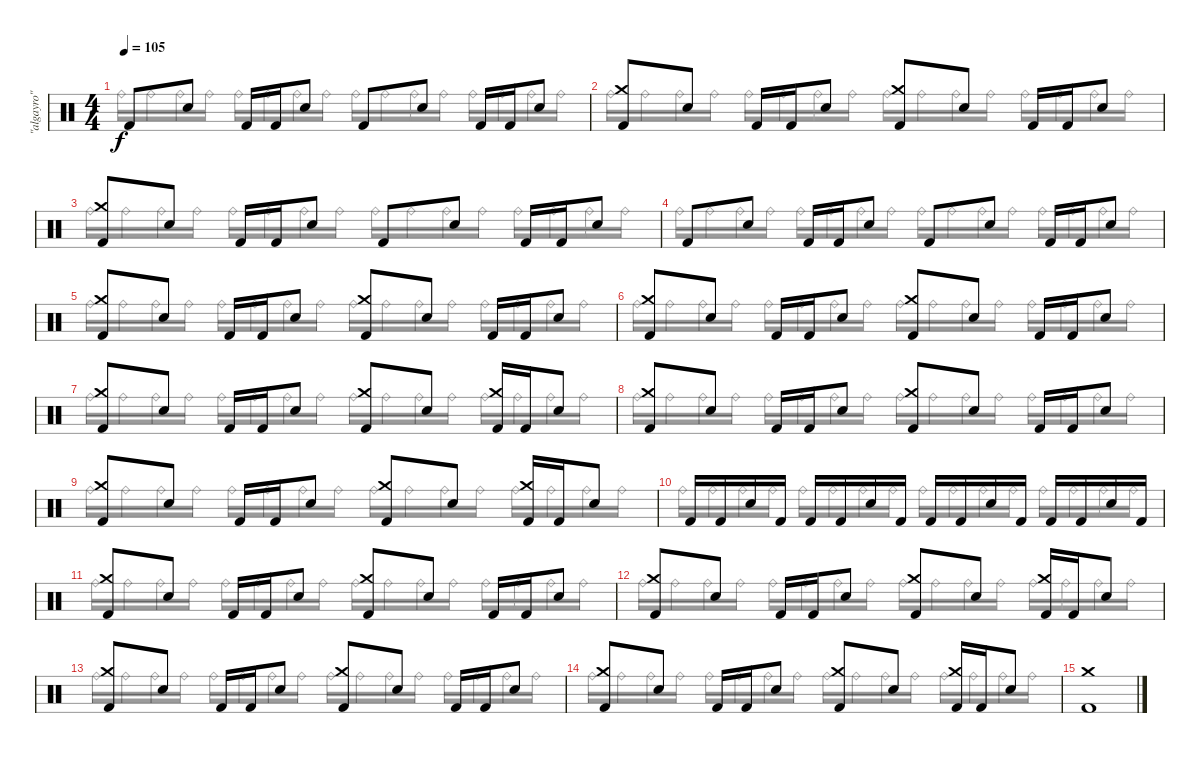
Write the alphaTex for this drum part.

\track ("\"algayro\"" "\"algayro\"") {instrument percussion}
\staff {score}
\articulation defaults
\voice
\ts (4 4)
\tempo 105
\clef neutral
\ks c "Kick (hit) 2".8{dy f} "Electric Snare (hit)".8 "Kick (hit) 2".16 "Kick (hit) 2".16 "Electric Snare (hit)".8 "Kick (hit) 2".8 "Electric Snare (hit)".8 "Kick (hit) 2".16 "Kick (hit) 2".16 "Electric Snare (hit)".8
|
("Crash medium (hit)" "Kick (hit) 2").8 "Electric Snare (hit)".8 "Kick (hit) 2".16 "Kick (hit) 2".16 "Electric Snare (hit)".8 ("Crash medium (hit)" "Kick (hit) 2").8 "Electric Snare (hit)".8 "Kick (hit) 2".16 "Kick (hit) 2".16 "Electric Snare (hit)".8 |
("Crash medium (hit)" "Kick (hit) 2").8 "Electric Snare (hit)".8 "Kick (hit) 2".16 "Kick (hit) 2".16 "Electric Snare (hit)".8 "Kick (hit) 2".8 "Electric Snare (hit)".8 "Kick (hit) 2".16 "Kick (hit) 2".16 "Electric Snare (hit)".8 |
"Kick (hit) 2".8 "Electric Snare (hit)".8 "Kick (hit) 2".16 "Kick (hit) 2".16 "Electric Snare (hit)".8 "Kick (hit) 2".8 "Electric Snare (hit)".8 "Kick (hit) 2".16 "Kick (hit) 2".16 "Electric Snare (hit)".8 |
("Crash medium (hit)" "Kick (hit) 2").8 "Electric Snare (hit)".8 "Kick (hit) 2".16 "Kick (hit) 2".16 "Electric Snare (hit)".8 ("Crash medium (hit)" "Kick (hit) 2").8 "Electric Snare (hit)".8 "Kick (hit) 2".16 "Kick (hit) 2".16 "Electric Snare (hit)".8 |
("Crash medium (hit)" "Kick (hit) 2").8 "Electric Snare (hit)".8 "Kick (hit) 2".16 "Kick (hit) 2".16 "Electric Snare (hit)".8 ("Crash medium (hit)" "Kick (hit) 2").8 "Electric Snare (hit)".8 "Kick (hit) 2".16 "Kick (hit) 2".16 "Electric Snare (hit)".8 |
("Crash medium (hit)" "Kick (hit) 2").8 "Electric Snare (hit)".8 "Kick (hit) 2".16 "Kick (hit) 2".16 "Electric Snare (hit)".8 ("Crash medium (hit)" "Kick (hit) 2").8 "Electric Snare (hit)".8 ("Crash medium (hit)" "Kick (hit) 2").16 "Kick (hit) 2".16 "Electric Snare (hit)".8 |
("Crash medium (hit)" "Kick (hit) 2").8 "Electric Snare (hit)".8 "Kick (hit) 2".16 "Kick (hit) 2".16 "Electric Snare (hit)".8 ("Crash medium (hit)" "Kick (hit) 2").8 "Electric Snare (hit)".8 "Kick (hit) 2".16 "Kick (hit) 2".16 "Electric Snare (hit)".8 |
("Crash medium (hit)" "Kick (hit) 2").8 "Electric Snare (hit)".8 "Kick (hit) 2".16 "Kick (hit) 2".16 "Electric Snare (hit)".8 ("Crash medium (hit)" "Kick (hit) 2").8 "Electric Snare (hit)".8 ("Crash medium (hit)" "Kick (hit) 2").16 "Kick (hit) 2".16 "Electric Snare (hit)".8 |
"Kick (hit) 2".16 "Kick (hit) 2".16 "Electric Snare (hit)".16 "Kick (hit) 2".16 "Kick (hit) 2".16 "Kick (hit) 2".16 "Electric Snare (hit)".16 "Kick (hit) 2".16 "Kick (hit) 2".16 "Kick (hit) 2".16 "Electric Snare (hit)".16 "Kick (hit) 2".16 "Kick (hit) 2".16 "Kick (hit) 2".16 "Electric Snare (hit)".16 "Kick (hit) 2".16 |
("Crash medium (hit)" "Kick (hit) 2").8 "Electric Snare (hit)".8 "Kick (hit) 2".16 "Kick (hit) 2".16 "Electric Snare (hit)".8 ("Crash medium (hit)" "Kick (hit) 2").8 "Electric Snare (hit)".8 "Kick (hit) 2".16 "Kick (hit) 2".16 "Electric Snare (hit)".8 |
("Crash medium (hit)" "Kick (hit) 2").8 "Electric Snare (hit)".8 "Kick (hit) 2".16 "Kick (hit) 2".16 "Electric Snare (hit)".8 ("Crash medium (hit)" "Kick (hit) 2").8 "Electric Snare (hit)".8 ("Crash medium (hit)" "Kick (hit) 2").16 "Kick (hit) 2".16 "Electric Snare (hit)".8 |
("Crash medium (hit)" "Kick (hit) 2").8 "Electric Snare (hit)".8 "Kick (hit) 2".16 "Kick (hit) 2".16 "Electric Snare (hit)".8 ("Crash medium (hit)" "Kick (hit) 2").8 "Electric Snare (hit)".8 "Kick (hit) 2".16 "Kick (hit) 2".16 "Electric Snare (hit)".8 |
("Crash medium (hit)" "Kick (hit) 2").8 "Electric Snare (hit)".8 "Kick (hit) 2".16 "Kick (hit) 2".16 "Electric Snare (hit)".8 ("Crash medium (hit)" "Kick (hit) 2").8 "Electric Snare (hit)".8 ("Crash medium (hit)" "Kick (hit) 2").16 "Kick (hit) 2".16 "Electric Snare (hit)".8 |
("Crash medium (hit)" "Kick (hit) 2").1
\voice
\clef neutral
\ottava regular
\simile none
\ks c "Ride (bell)".16{dy f} "Ride (bell)".16 "Ride (bell)".16 "Ride (bell)".16 "Ride (bell)".16 "Ride (bell)".16 "Ride (bell)".16 "Ride (bell)".16 "Ride (bell)".16 "Ride (bell)".16 "Ride (bell)".16 "Ride (bell)".16 "Ride (bell)".16 "Ride (bell)".16 "Ride (bell)".16 "Ride (bell)".16
|
"Ride (bell)".16 "Ride (bell)".16 "Ride (bell)".16 "Ride (bell)".16 "Ride (bell)".16 "Ride (bell)".16 "Ride (bell)".16 "Ride (bell)".16 "Ride (bell)".16 "Ride (bell)".16 "Ride (bell)".16 "Ride (bell)".16 "Ride (bell)".16 "Ride (bell)".16 "Ride (bell)".16 "Ride (bell)".16 |
"Ride (bell)".16 "Ride (bell)".16 "Ride (bell)".16 "Ride (bell)".16 "Ride (bell)".16 "Ride (bell)".16 "Ride (bell)".16 "Ride (bell)".16 "Ride (bell)".16 "Ride (bell)".16 "Ride (bell)".16 "Ride (bell)".16 "Ride (bell)".16 "Ride (bell)".16 "Ride (bell)".16 "Ride (bell)".16 |
"Ride (bell)".16 "Ride (bell)".16 "Ride (bell)".16 "Ride (bell)".16 "Ride (bell)".16 "Ride (bell)".16 "Ride (bell)".16 "Ride (bell)".16 "Ride (bell)".16 "Ride (bell)".16 "Ride (bell)".16 "Ride (bell)".16 "Ride (bell)".16 "Ride (bell)".16 "Ride (bell)".16 "Ride (bell)".16 |
"Ride (bell)".16 "Ride (bell)".16 "Ride (bell)".16 "Ride (bell)".16 "Ride (bell)".16 "Ride (bell)".16 "Ride (bell)".16 "Ride (bell)".16 "Ride (bell)".16 "Ride (bell)".16 "Ride (bell)".16 "Ride (bell)".16 "Ride (bell)".16 "Ride (bell)".16 "Ride (bell)".16 "Ride (bell)".16 |
"Ride (bell)".16 "Ride (bell)".16 "Ride (bell)".16 "Ride (bell)".16 "Ride (bell)".16 "Ride (bell)".16 "Ride (bell)".16 "Ride (bell)".16 "Ride (bell)".16 "Ride (bell)".16 "Ride (bell)".16 "Ride (bell)".16 "Ride (bell)".16 "Ride (bell)".16 "Ride (bell)".16 "Ride (bell)".16 |
"Ride (bell)".16 "Ride (bell)".16 "Ride (bell)".16 "Ride (bell)".16 "Ride (bell)".16 "Ride (bell)".16 "Ride (bell)".16 "Ride (bell)".16 "Ride (bell)".16 "Ride (bell)".16 "Ride (bell)".16 "Ride (bell)".16 "Ride (bell)".16 "Ride (bell)".16 "Ride (bell)".16 "Ride (bell)".16 |
"Ride (bell)".16 "Ride (bell)".16 "Ride (bell)".16 "Ride (bell)".16 "Ride (bell)".16 "Ride (bell)".16 "Ride (bell)".16 "Ride (bell)".16 "Ride (bell)".16 "Ride (bell)".16 "Ride (bell)".16 "Ride (bell)".16 "Ride (bell)".16 "Ride (bell)".16 "Ride (bell)".16 "Ride (bell)".16 |
"Ride (bell)".16 "Ride (bell)".16 "Ride (bell)".16 "Ride (bell)".16 "Ride (bell)".16 "Ride (bell)".16 "Ride (bell)".16 "Ride (bell)".16 "Ride (bell)".16 "Ride (bell)".16 "Ride (bell)".16 "Ride (bell)".16 "Ride (bell)".16 "Ride (bell)".16 "Ride (bell)".16 "Ride (bell)".16 |
"Ride (bell)".16 "Ride (bell)".16 "Ride (bell)".16 "Ride (bell)".16 "Ride (bell)".16 "Ride (bell)".16 "Ride (bell)".16 "Ride (bell)".16 "Ride (bell)".16 "Ride (bell)".16 "Ride (bell)".16 "Ride (bell)".16 "Ride (bell)".16 "Ride (bell)".16 "Ride (bell)".16 "Ride (bell)".16 |
"Ride (bell)".16 "Ride (bell)".16 "Ride (bell)".16 "Ride (bell)".16 "Ride (bell)".16 "Ride (bell)".16 "Ride (bell)".16 "Ride (bell)".16 "Ride (bell)".16 "Ride (bell)".16 "Ride (bell)".16 "Ride (bell)".16 "Ride (bell)".16 "Ride (bell)".16 "Ride (bell)".16 "Ride (bell)".16 |
"Ride (bell)".16 "Ride (bell)".16 "Ride (bell)".16 "Ride (bell)".16 "Ride (bell)".16 "Ride (bell)".16 "Ride (bell)".16 "Ride (bell)".16 "Ride (bell)".16 "Ride (bell)".16 "Ride (bell)".16 "Ride (bell)".16 "Ride (bell)".16 "Ride (bell)".16 "Ride (bell)".16 "Ride (bell)".16 |
"Ride (bell)".16 "Ride (bell)".16 "Ride (bell)".16 "Ride (bell)".16 "Ride (bell)".16 "Ride (bell)".16 "Ride (bell)".16 "Ride (bell)".16 "Ride (bell)".16 "Ride (bell)".16 "Ride (bell)".16 "Ride (bell)".16 "Ride (bell)".16 "Ride (bell)".16 "Ride (bell)".16 "Ride (bell)".16 |
"Ride (bell)".16 "Ride (bell)".16 "Ride (bell)".16 "Ride (bell)".16 "Ride (bell)".16 "Ride (bell)".16 "Ride (bell)".16 "Ride (bell)".16 "Ride (bell)".16 "Ride (bell)".16 "Ride (bell)".16 "Ride (bell)".16 "Ride (bell)".16 "Ride (bell)".16 "Ride (bell)".16 "Ride (bell)".16 |
